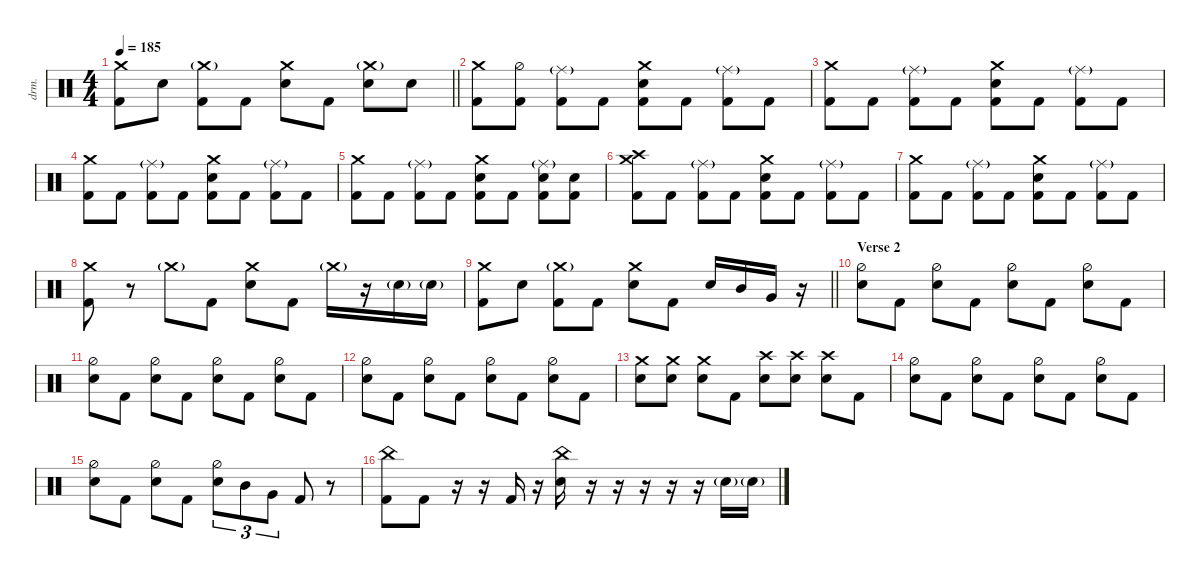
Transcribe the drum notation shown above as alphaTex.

\defaultSystemsLayout 4
\hideDynamics
\bracketExtendMode nobrackets
\track ("Drums - Šimon" "drm.") {instrument percussion}
\staff {score}
\articulation defaults
\ts (4 4)
\tempo 185
\clef neutral
\barLineRight lightlight
\ks c
("Crash medium (hit)" "Kick (hit) 2").8{dy ff} "Snare (hit) 2".8 ("Kick (hit) 2" "Crash medium (hit)"{g}).8 "Kick (hit) 2".8 ("Snare (hit) 2" "Crash medium (hit)").8 "Kick (hit) 2".8 ("Crash medium (hit)"{g} "Snare (hit) 2").8 "Snare (hit) 2".8 |
("Crash medium (hit)" "Kick (hit) 2").8 ("Kick (hit) 2" "Hi-Hat (half)").8 ("Kick (hit) 2" "Ride (middle)"{g}).8 "Kick (hit) 2".8 ("Snare (hit) 2" "Crash medium (hit)" "Kick (hit) 2").8 "Kick (hit) 2".8 ("Kick (hit) 2" "Ride (middle)"{g}).8 "Kick (hit) 2".8 |
("Crash medium (hit)" "Kick (hit) 2").8 "Kick (hit) 2".8 ("Kick (hit) 2" "Ride (middle)"{g}).8 "Kick (hit) 2".8 ("Snare (hit) 2" "Crash medium (hit)" "Kick (hit) 2").8 "Kick (hit) 2".8 ("Kick (hit) 2" "Ride (middle)"{g}).8 "Kick (hit) 2".8 |
("Crash medium (hit)" "Kick (hit) 2").8 "Kick (hit) 2".8 ("Kick (hit) 2" "Ride (middle)"{g}).8 "Kick (hit) 2".8 ("Snare (hit) 2" "Crash medium (hit)" "Kick (hit) 2").8 "Kick (hit) 2".8 ("Kick (hit) 2" "Ride (middle)"{g}).8 "Kick (hit) 2".8 |
("Crash medium (hit)" "Kick (hit) 2").8 "Kick (hit) 2".8 ("Kick (hit) 2" "Ride (middle)"{g}).8 "Kick (hit) 2".8 ("Snare (hit) 2" "Crash medium (hit)" "Kick (hit) 2").8 "Kick (hit) 2".8 ("Kick (hit) 2" "Ride (middle)"{g} "Snare (hit) 2").8 ("Kick (hit) 2" "Snare (hit) 2").8 |
("Crash medium (hit)" "Kick (hit) 2" "Crash high (hit)").8 "Kick (hit) 2".8 ("Kick (hit) 2" "Ride (middle)"{g}).8 "Kick (hit) 2".8 ("Snare (hit) 2" "Crash medium (hit)" "Kick (hit) 2").8 "Kick (hit) 2".8 ("Kick (hit) 2" "Ride (middle)"{g}).8 "Kick (hit) 2".8 |
("Crash medium (hit)" "Kick (hit) 2").8 "Kick (hit) 2".8 ("Kick (hit) 2" "Ride (middle)"{g}).8 "Kick (hit) 2".8 ("Snare (hit) 2" "Crash medium (hit)" "Kick (hit) 2").8 "Kick (hit) 2".8 ("Kick (hit) 2" "Ride (middle)"{g}).8 "Kick (hit) 2".8 |
("Kick (hit) 2" "Crash medium (hit)").8 r.8 "Crash medium (hit)"{g}.8 "Kick (hit) 2".8 ("Snare (hit) 2" "Crash medium (hit)").8 "Kick (hit) 2".8 "Crash medium (hit)"{g}.16 r.16 "Snare (hit) 2"{g}.16 "Snare (hit) 2"{g}.16 |
\barLineRight lightlight
("Crash medium (hit)" "Kick (hit) 2").8 "Snare (hit) 2".8 ("Kick (hit) 2" "Crash medium (hit)"{g}).8 "Kick (hit) 2".8 ("Snare (hit) 2" "Crash medium (hit)").8 "Kick (hit) 2".8 "Snare (hit) 2".16 "Mid Tom (hit)".16 "Very Low Tom (hit)".16 r.16 |
\section ("" "Verse 2")
("Snare (hit) 2" "Hi-Hat (half)").8 "Kick (hit) 2".8 ("Snare (hit) 2" "Hi-Hat (half)").8 "Kick (hit) 2".8 ("Snare (hit) 2" "Hi-Hat (half)").8 "Kick (hit) 2".8 ("Snare (hit) 2" "Hi-Hat (half)").8 "Kick (hit) 2".8 |
("Snare (hit) 2" "Hi-Hat (half)").8 "Kick (hit) 2".8 ("Snare (hit) 2" "Hi-Hat (half)").8 "Kick (hit) 2".8 ("Snare (hit) 2" "Hi-Hat (half)").8 "Kick (hit) 2".8 ("Snare (hit) 2" "Hi-Hat (half)").8 "Kick (hit) 2".8 |
("Snare (hit) 2" "Hi-Hat (half)").8 "Kick (hit) 2".8 ("Snare (hit) 2" "Hi-Hat (half)").8 "Kick (hit) 2".8 ("Snare (hit) 2" "Hi-Hat (half)").8 "Kick (hit) 2".8 ("Snare (hit) 2" "Hi-Hat (half)").8 "Kick (hit) 2".8 |
("Snare (hit) 2" "Crash medium (hit)").8 ("Snare (hit) 2" "Crash medium (hit)").8 ("Snare (hit) 2" "Crash medium (hit)").8 "Kick (hit) 2".8 ("Snare (hit) 2" "Crash high (hit)").8 ("Snare (hit) 2" "Crash high (hit)").8 ("Snare (hit) 2" "Crash high (hit)").8 "Kick (hit) 2".8 |
("Snare (hit) 2" "Hi-Hat (half)").8 "Kick (hit) 2".8 ("Snare (hit) 2" "Hi-Hat (half)").8 "Kick (hit) 2".8 ("Snare (hit) 2" "Hi-Hat (half)").8 "Kick (hit) 2".8 ("Snare (hit) 2" "Hi-Hat (half)").8 "Kick (hit) 2".8 |
("Snare (hit) 2" "Hi-Hat (half)").8 "Kick (hit) 2".8 ("Snare (hit) 2" "Hi-Hat (half)").8 "Kick (hit) 2".8 ("Hi-Hat (half)" "Snare (hit) 2").8{tu (3 2)} "Mid Tom (hit)".8{tu (3 2)} "Very Low Tom (hit)".8{tu (3 2)} "Kick (hit) 2".8 r.8 |
("China (hit)" "Kick (hit) 2").8 "Kick (hit) 2".8 r.16 r.16 "Kick (hit) 2".16 r.16 ("Snare (hit) 2" "China (hit)").16 r.16 r.16 r.16 r.16 r.16 "Snare (hit) 2"{g}.16 "Snare (hit) 2"{g}.16
